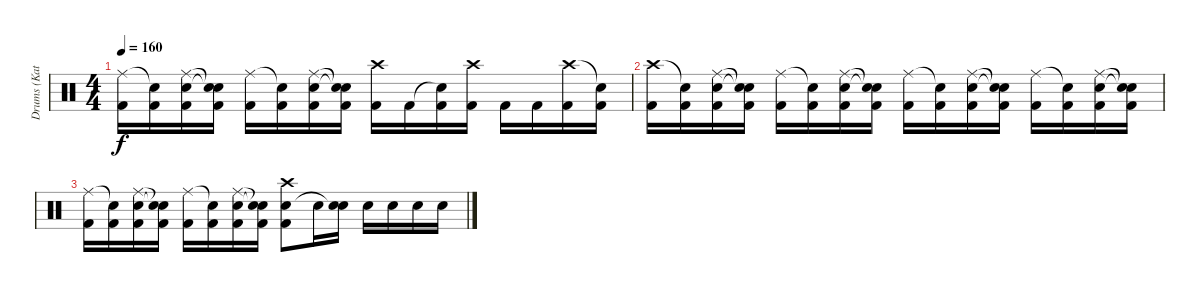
\track ("Drums (Katsuji)" "Drums (Kat") {instrument percussion}
\staff {score}
\articulation defaults
\ts (4 4)
\tempo 160
\clef neutral
\ks c
("Ride (middle)" "Kick (hit) 2").16{dy f} ("Snare (hit)"{t} "Kick (hit) 2").16 ("Ride (middle)" "Snare (hit) 2" "Kick (hit) 2").16 ("Snare (hit)"{t} "Snare (hit)"{t} "Kick (hit) 2").16 ("Ride (middle)" "Kick (hit) 2").16 ("Snare (hit)"{t} "Kick (hit) 2").16 ("Ride (middle)" "Snare (hit) 2" "Kick (hit) 2").16 ("Snare (hit)"{t} "Snare (hit)"{t} "Kick (hit) 2").16 ("Crash high (hit)" "Kick (hit) 2").16 "Kick (hit) 2".16 ("Snare (hit)"{t} "Kick (hit) 2").16 ("Crash high (hit)" "Kick (hit) 2").16 "Kick (hit) 2".16 "Kick (hit) 2".16 ("Crash high (hit)" "Kick (hit) 2").16 ("Snare (hit)"{t} "Kick (hit) 2").16 |
("Crash high (hit)" "Kick (hit) 2").16 ("Snare (hit)"{t} "Kick (hit) 2").16 ("Ride (middle)" "Snare (hit) 2" "Kick (hit) 2").16 ("Snare (hit)"{t} "Snare (hit)"{t} "Kick (hit) 2").16 ("Ride (middle)" "Kick (hit) 2").16 ("Snare (hit)"{t} "Kick (hit) 2").16 ("Ride (middle)" "Snare (hit) 2" "Kick (hit) 2").16 ("Snare (hit)"{t} "Snare (hit)"{t} "Kick (hit) 2").16 ("Ride (middle)" "Kick (hit) 2").16 ("Snare (hit)"{t} "Kick (hit) 2").16 ("Ride (middle)" "Snare (hit) 2" "Kick (hit) 2").16 ("Snare (hit)"{t} "Snare (hit)"{t} "Kick (hit) 2").16 ("Ride (middle)" "Kick (hit) 2").16 ("Snare (hit)"{t} "Kick (hit) 2").16 ("Ride (middle)" "Snare (hit) 2" "Kick (hit) 2").16 ("Snare (hit)"{t} "Snare (hit)"{t} "Kick (hit) 2").16 |
("Ride (middle)" "Kick (hit) 2").16 ("Snare (hit)"{t} "Kick (hit) 2").16 ("Ride (middle)" "Snare (hit) 2" "Kick (hit) 2").16 ("Snare (hit)"{t} "Snare (hit)"{t} "Kick (hit) 2").16 ("Ride (middle)" "Kick (hit) 2").16 ("Snare (hit)"{t} "Kick (hit) 2").16 ("Ride (middle)" "Snare (hit) 2" "Kick (hit) 2").16 ("Snare (hit)"{t} "Snare (hit)"{t} "Kick (hit) 2").16 ("Crash high (hit)" "Snare (hit) 2" "Kick (hit) 2").8 "Snare (hit) 2".16 ("Snare (hit) 2" "Snare (hit)"{t}).16 "Snare (hit) 2".16 "Snare (hit) 2".16 "Snare (hit) 2".16 "Snare (hit) 2".16
